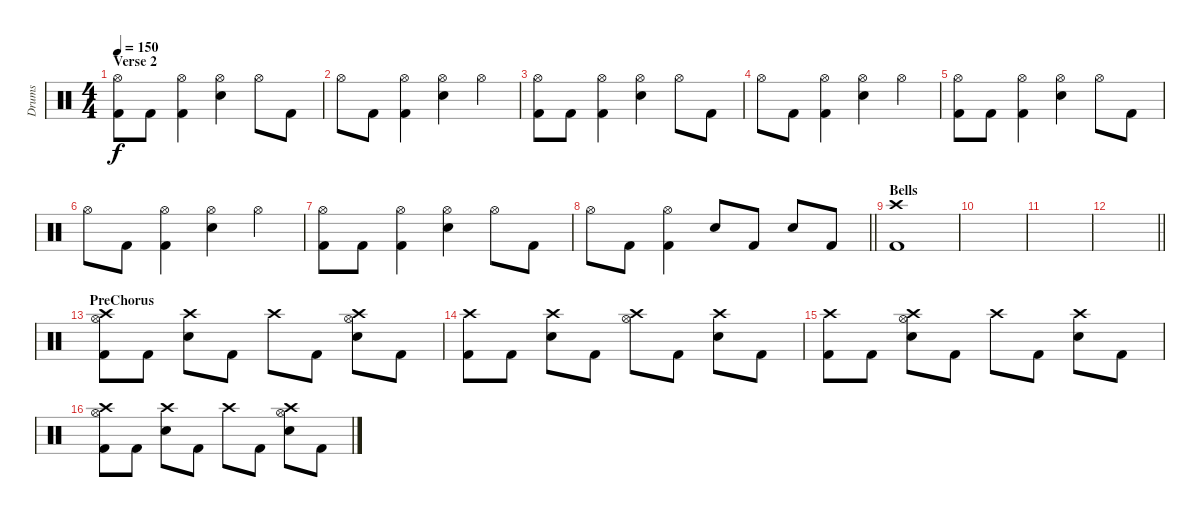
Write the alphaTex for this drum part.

\track ("Drums" "Drums") {instrument percussion}
\staff {score}
\articulation defaults
\ts (4 4)
\section ("" "Verse 2")
\tempo 150
\clef neutral
\ks c
("Hi-Hat (open)" "Kick (hit) 2").8{dy f} "Kick (hit) 2".8 ("Hi-Hat (open)" "Kick (hit) 2").4 ("Hi-Hat (open)" "Snare (hit) 2").4 "Hi-Hat (open)".8 "Kick (hit) 2".8 |
"Hi-Hat (open)".8 "Kick (hit) 2".8 ("Hi-Hat (open)" "Kick (hit) 2").4 ("Hi-Hat (open)" "Snare (hit) 2").4 "Hi-Hat (open)".4 |
("Hi-Hat (open)" "Kick (hit) 2").8 "Kick (hit) 2".8 ("Hi-Hat (open)" "Kick (hit) 2").4 ("Hi-Hat (open)" "Snare (hit) 2").4 "Hi-Hat (open)".8 "Kick (hit) 2".8 |
"Hi-Hat (open)".8 "Kick (hit) 2".8 ("Hi-Hat (open)" "Kick (hit) 2").4 ("Hi-Hat (open)" "Snare (hit) 2").4 "Hi-Hat (open)".4 |
("Hi-Hat (open)" "Kick (hit) 2").8 "Kick (hit) 2".8 ("Hi-Hat (open)" "Kick (hit) 2").4 ("Hi-Hat (open)" "Snare (hit) 2").4 "Hi-Hat (open)".8 "Kick (hit) 2".8 |
"Hi-Hat (open)".8 "Kick (hit) 2".8 ("Hi-Hat (open)" "Kick (hit) 2").4 ("Hi-Hat (open)" "Snare (hit) 2").4 "Hi-Hat (open)".4 |
("Hi-Hat (open)" "Kick (hit) 2").8 "Kick (hit) 2".8 ("Hi-Hat (open)" "Kick (hit) 2").4 ("Hi-Hat (open)" "Snare (hit) 2").4 "Hi-Hat (open)".8 "Kick (hit) 2".8 |
\barLineRight lightlight "Hi-Hat (open)".8 "Kick (hit) 2".8
("Hi-Hat (open)" "Kick (hit) 2").4 "Snare (hit) 2".8 "Kick (hit) 2".8 "Snare (hit) 2".8 "Kick (hit) 2".8 |
\section ("" "Bells")
("Crash high (hit)" "Kick (hit) 2").1 |
|
|
\barLineRight lightlight
|
\section ("" "PreChorus")
("Crash high (hit)" "Hi-Hat (open)" "Kick (hit) 2").8 "Kick (hit) 2".8 ("Crash high (hit)" "Snare (hit) 2").8 "Kick (hit) 2".8 "Crash high (hit)".8 "Kick (hit) 2".8 ("Crash high (hit)" "Hi-Hat (open)" "Snare (hit) 2").8 "Kick (hit) 2".8 |
("Crash high (hit)" "Kick (hit) 2").8 "Kick (hit) 2".8 ("Crash high (hit)" "Snare (hit) 2").8 "Kick (hit) 2".8 ("Crash high (hit)" "Hi-Hat (open)").8 "Kick (hit) 2".8 ("Crash high (hit)" "Snare (hit) 2").8 "Kick (hit) 2".8 |
("Crash high (hit)" "Kick (hit) 2").8 "Kick (hit) 2".8 ("Crash high (hit)" "Hi-Hat (open)" "Snare (hit) 2").8 "Kick (hit) 2".8 "Crash high (hit)".8 "Kick (hit) 2".8 ("Crash high (hit)" "Snare (hit) 2").8 "Kick (hit) 2".8 |
("Crash high (hit)" "Hi-Hat (open)" "Kick (hit) 2").8 "Kick (hit) 2".8 ("Crash high (hit)" "Snare (hit) 2").8 "Kick (hit) 2".8 "Crash high (hit)".8 "Kick (hit) 2".8 ("Crash high (hit)" "Hi-Hat (open)" "Snare (hit) 2").8 "Kick (hit) 2".8
